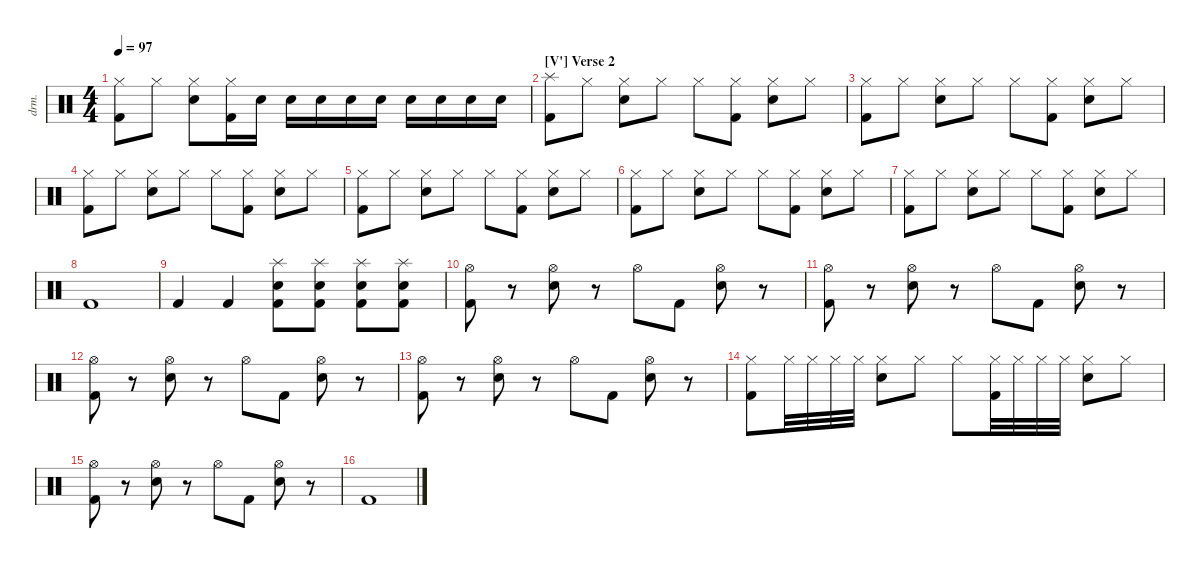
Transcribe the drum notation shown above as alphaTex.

\defaultSystemsLayout 4
\hideDynamics
\bracketExtendMode nobrackets
\otherSystemsTrackNameOrientation horizontal
\track ("Drumkit" "drm.") {instrument percussion}
\staff {score}
\articulation defaults
\ts (4 4)
\tempo 97
\clef neutral
\ks c
("Kick (hit) 2" "Hi-Hat (closed)").8{dy mf beam Down} "Hi-Hat (closed)".8{beam Down} ("Hi-Hat (closed)" "Snare (hit) 2").8{beam Down} ("Hi-Hat (closed)" "Kick (hit) 2").16{beam Down} "Snare (hit) 2".16{beam Down} "Snare (hit) 2".16{beam Down} "Snare (hit) 2".16{beam Down} "Snare (hit) 2".16{beam Down} "Snare (hit) 2".16{beam Down} "Snare (hit) 2".16{beam Down} "Snare (hit) 2".16{beam Down} "Snare (hit) 2".16{beam Down} "Snare (hit) 2".16{beam Down} |
\section ("V'" "Verse 2")
("Kick (hit) 2" "Splash (hit)").8{beam Down} "Hi-Hat (closed)".8{beam Down} ("Hi-Hat (closed)" "Snare (hit) 2").8{beam Down} "Hi-Hat (closed)".8{beam Down} "Hi-Hat (closed)".8{beam Down} ("Kick (hit) 2" "Hi-Hat (closed)").8{beam Down} ("Hi-Hat (closed)" "Snare (hit) 2").8{beam Down} "Hi-Hat (closed)".8{beam Down} |
("Kick (hit) 2" "Hi-Hat (closed)").8{beam Down} "Hi-Hat (closed)".8{beam Down} ("Hi-Hat (closed)" "Snare (hit) 2").8{beam Down} "Hi-Hat (closed)".8{beam Down} "Hi-Hat (closed)".8{beam Down} ("Kick (hit) 2" "Hi-Hat (closed)").8{beam Down} ("Hi-Hat (closed)" "Snare (hit) 2").8{beam Down} "Hi-Hat (closed)".8{beam Down} |
("Kick (hit) 2" "Hi-Hat (closed)").8{beam Down} "Hi-Hat (closed)".8{beam Down} ("Hi-Hat (closed)" "Snare (hit) 2").8{beam Down} "Hi-Hat (closed)".8{beam Down} "Hi-Hat (closed)".8{beam Down} ("Kick (hit) 2" "Hi-Hat (closed)").8{beam Down} ("Hi-Hat (closed)" "Snare (hit) 2").8{beam Down} "Hi-Hat (closed)".8{beam Down} |
("Kick (hit) 2" "Hi-Hat (closed)").8{beam Down} "Hi-Hat (closed)".8{beam Down} ("Hi-Hat (closed)" "Snare (hit) 2").8{beam Down} "Hi-Hat (closed)".8{beam Down} "Hi-Hat (closed)".8{beam Down} ("Kick (hit) 2" "Hi-Hat (closed)").8{beam Down} ("Hi-Hat (closed)" "Snare (hit) 2").8{beam Down} "Hi-Hat (closed)".8{beam Down} |
("Kick (hit) 2" "Hi-Hat (closed)").8{beam Down} "Hi-Hat (closed)".8{beam Down} ("Hi-Hat (closed)" "Snare (hit) 2").8{beam Down} "Hi-Hat (closed)".8{beam Down} "Hi-Hat (closed)".8{beam Down} ("Kick (hit) 2" "Hi-Hat (closed)").8{beam Down} ("Hi-Hat (closed)" "Snare (hit) 2").8{beam Down} "Hi-Hat (closed)".8{beam Down} |
("Kick (hit) 2" "Hi-Hat (closed)").8{beam Down} "Hi-Hat (closed)".8{beam Down} ("Hi-Hat (closed)" "Snare (hit) 2").8{beam Down} "Hi-Hat (closed)".8{beam Down} "Hi-Hat (closed)".8{beam Down} ("Kick (hit) 2" "Hi-Hat (closed)").8{beam Down} ("Hi-Hat (closed)" "Snare (hit) 2").8{beam Down} "Hi-Hat (closed)".8{beam Down} |
"Kick (hit) 2".1{beam Up} |
"Kick (hit) 2".4{beam Up} "Kick (hit) 2".4{beam Up} ("Kick (hit) 2" "Snare (hit) 2" "Splash (hit)").8{beam Down} ("Kick (hit) 2" "Snare (hit) 2" "Splash (hit)").8{beam Down} ("Snare (hit) 2" "Kick (hit) 2" "Splash (hit)").8{beam Down} ("Kick (hit) 2" "Snare (hit) 2" "Splash (hit)").8{beam Down} |
("Kick (hit) 2" "Hi-Hat (open)").8{beam Down} r.8{beam Down} ("Hi-Hat (open)" "Snare (hit) 2").8{beam Down} r.8{beam Down} "Hi-Hat (open)".8{beam Down} "Kick (hit) 2".8{beam Down} ("Hi-Hat (open)" "Snare (hit) 2").8{beam Down} r.8{beam Down} |
("Kick (hit) 2" "Hi-Hat (open)").8{beam Down} r.8{beam Down} ("Hi-Hat (open)" "Snare (hit) 2").8{beam Down} r.8{beam Down} "Hi-Hat (open)".8{beam Down} "Kick (hit) 2".8{beam Down} ("Hi-Hat (open)" "Snare (hit) 2").8{beam Down} r.8{beam Down} |
("Kick (hit) 2" "Hi-Hat (open)").8{beam Down} r.8{beam Down} ("Hi-Hat (open)" "Snare (hit) 2").8{beam Down} r.8{beam Down} "Hi-Hat (open)".8{beam Down} "Kick (hit) 2".8{beam Down} ("Hi-Hat (open)" "Snare (hit) 2").8{beam Down} r.8{beam Down} |
("Kick (hit) 2" "Hi-Hat (open)").8{beam Down} r.8{beam Down} ("Hi-Hat (open)" "Snare (hit) 2").8{beam Down} r.8{beam Down} "Hi-Hat (open)".8{beam Down} "Kick (hit) 2".8{beam Down} ("Hi-Hat (open)" "Snare (hit) 2").8{beam Down} r.8{beam Down} |
("Kick (hit) 2" "Hi-Hat (closed)").8{beam Down} "Hi-Hat (closed)".32{beam Down} "Hi-Hat (closed)".32{beam Down} "Hi-Hat (closed)".32{beam Down} "Hi-Hat (closed)".32{beam Down} ("Hi-Hat (closed)" "Snare (hit) 2").8{beam Down} "Hi-Hat (closed)".8{beam Down} "Hi-Hat (closed)".8{beam Down} ("Kick (hit) 2" "Hi-Hat (closed)").32{beam Down} "Hi-Hat (closed)".32{beam Down} "Hi-Hat (closed)".32{beam Down} "Hi-Hat (closed)".32{beam Down} ("Hi-Hat (closed)" "Snare (hit) 2").8{beam Down} "Hi-Hat (closed)".8{beam Down} |
("Kick (hit) 2" "Hi-Hat (open)").8{beam Down} r.8{beam Down} ("Hi-Hat (open)" "Snare (hit) 2").8{beam Down} r.8{beam Down} "Hi-Hat (open)".8{beam Down} "Kick (hit) 2".8{beam Down} ("Hi-Hat (open)" "Snare (hit) 2").8{beam Down} r.8{beam Down} |
"Kick (hit) 2".1{beam Up}
